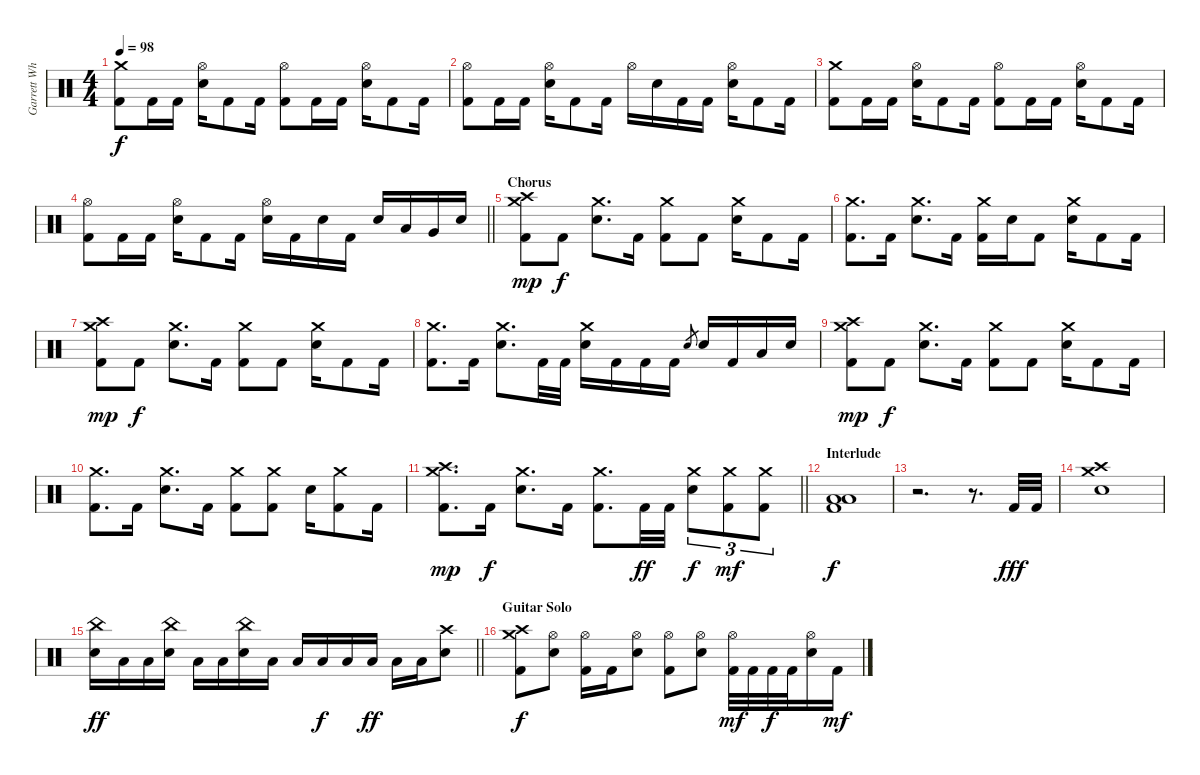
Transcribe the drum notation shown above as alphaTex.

\track ("Garrett Whitlock" "Garrett Wh") {instrument percussion}
\staff {score}
\articulation defaults
\ts (4 4)
\tempo 98
\clef neutral
\ks c
("Crash medium (hit)" "Kick (hit) 2").8{dy f} "Kick (hit) 2".16 "Kick (hit) 2".16 ("Hi-Hat (open)" "Electric Snare (hit)").16 "Kick (hit) 2".8 "Kick (hit) 2".16 ("Hi-Hat (open)" "Kick (hit) 2").8 "Kick (hit) 2".16 "Kick (hit) 2".16 ("Hi-Hat (open)" "Electric Snare (hit)").16 "Kick (hit) 2".8 "Kick (hit) 2".16 |
("Hi-Hat (open)" "Kick (hit) 2").8 "Kick (hit) 2".16 "Kick (hit) 2".16 ("Hi-Hat (open)" "Electric Snare (hit)").16 "Kick (hit) 2".8 "Kick (hit) 2".16 "Hi-Hat (open)".16 "Electric Snare (hit)".16 "Kick (hit) 2".16 "Kick (hit) 2".16 ("Hi-Hat (open)" "Electric Snare (hit)").16 "Kick (hit) 2".8 "Kick (hit) 2".16 |
("Crash medium (hit)" "Kick (hit) 2").8 "Kick (hit) 2".16 "Kick (hit) 2".16 ("Hi-Hat (open)" "Electric Snare (hit)").16 "Kick (hit) 2".8 "Kick (hit) 2".16 ("Hi-Hat (open)" "Kick (hit) 2").8 "Kick (hit) 2".16 "Kick (hit) 2".16 ("Hi-Hat (open)" "Electric Snare (hit)").16 "Kick (hit) 2".8 "Kick (hit) 2".16 |
\barLineRight lightlight
("Hi-Hat (open)" "Kick (hit) 2").8 "Kick (hit) 2".16 "Kick (hit) 2".16 ("Hi-Hat (open)" "Electric Snare (hit)").16 "Kick (hit) 2".8 "Kick (hit) 2".16 ("Hi-Hat (open)" "Electric Snare (hit)").16 "Kick (hit) 2".16 "Electric Snare (hit)".16 "Kick (hit) 2".16 "Electric Snare (hit)".16 "Low Tom (hit)".16 "Very Low Tom (hit)".16 "Electric Snare (hit)".16 |
\section ("" "Chorus")
("Crash high (hit)" "Crash medium (hit)" "Kick (hit) 2").8{dy mp} "Kick (hit) 2".8{dy f} ("Crash medium (hit)" "Electric Snare (hit)").8{d} "Kick (hit) 2".16 ("Crash medium (hit)" "Kick (hit) 2").8 "Kick (hit) 2".8 ("Crash medium (hit)" "Electric Snare (hit)").16 "Kick (hit) 2".8 "Kick (hit) 2".16 |
("Crash medium (hit)" "Kick (hit) 2").8{d} "Kick (hit) 2".16 ("Crash medium (hit)" "Electric Snare (hit)").8{d} "Kick (hit) 2".16 ("Crash medium (hit)" "Kick (hit) 2").16 "Electric Snare (hit)".16 "Kick (hit) 2".8 ("Crash medium (hit)" "Electric Snare (hit)").16 "Kick (hit) 2".8 "Kick (hit) 2".16 |
("Crash high (hit)" "Crash medium (hit)" "Kick (hit) 2").8{dy mp} "Kick (hit) 2".8{dy f} ("Crash medium (hit)" "Electric Snare (hit)").8{d} "Kick (hit) 2".16 ("Crash medium (hit)" "Kick (hit) 2").8 "Kick (hit) 2".8 ("Crash medium (hit)" "Electric Snare (hit)").16 "Kick (hit) 2".8 "Kick (hit) 2".16 |
("Crash medium (hit)" "Kick (hit) 2").8{d} "Kick (hit) 2".16 ("Crash medium (hit)" "Electric Snare (hit)").8{d} "Kick (hit) 2".32 "Kick (hit) 2".32 ("Crash medium (hit)" "Electric Snare (hit)").16 "Kick (hit) 2".16 "Kick (hit) 2".16 "Kick (hit) 2".16 "Electric Snare (hit)".8{gr} "Electric Snare (hit)".16 "Kick (hit) 2".16 "Low Tom (hit)".16 "Electric Snare (hit)".16 |
("Crash high (hit)" "Crash medium (hit)" "Kick (hit) 2").8{dy mp} "Kick (hit) 2".8{dy f} ("Crash medium (hit)" "Electric Snare (hit)").8{d} "Kick (hit) 2".16 ("Crash medium (hit)" "Kick (hit) 2").8 "Kick (hit) 2".8 ("Crash medium (hit)" "Electric Snare (hit)").16 "Kick (hit) 2".8 "Kick (hit) 2".16 |
("Crash medium (hit)" "Kick (hit) 2").8{d} "Kick (hit) 2".16 ("Crash medium (hit)" "Electric Snare (hit)").8{d} "Kick (hit) 2".16 ("Crash medium (hit)" "Kick (hit) 2").8 ("Crash medium (hit)" "Kick (hit) 2").8 "Electric Snare (hit)".16 ("Crash medium (hit)" "Kick (hit) 2").8 "Kick (hit) 2".16 |
\barLineRight lightlight
("Crash high (hit)" "Crash medium (hit)" "Kick (hit) 2").8{d dy mp} "Kick (hit) 2".16{dy f} ("Crash medium (hit)" "Electric Snare (hit)").8{d} "Kick (hit) 2".16 ("Crash medium (hit)" "Kick (hit) 2").8{d} "Kick (hit) 2".32{dy ff} "Kick (hit) 2".32 ("Crash medium (hit)" "Electric Snare (hit)").8{tu (3 2) dy f} ("Crash medium (hit)" "Kick (hit) 2").8{tu (3 2) dy mf} ("Crash medium (hit)" "Kick (hit) 2").8{tu (3 2)} |
\section ("" "Interlude")
("Low Tom (hit)" "Low Floor Tom (hit)" "Kick (hit) 2").1{dy f} |
r.2{d} r.8{d} "Kick (hit) 2".32{dy fff} "Kick (hit) 2".32 |
("Crash high (hit)" "Crash medium (hit)" "Electric Snare (hit)").1 |
\barLineRight lightlight
("China (hit)" "Electric Snare (hit)").16{dy ff} "Low Tom (hit)".16 "Low Tom (hit)".16 ("China (hit)" "Electric Snare (hit)").16 "Low Tom (hit)".16 "Low Tom (hit)".16 ("China (hit)" "Electric Snare (hit)").16 "Low Tom (hit)".16 "Low Tom (hit)".16 "Low Tom (hit)".16{dy f} "Low Tom (hit)".16 "Low Tom (hit)".16{dy ff} "Low Tom (hit)".16 "Low Tom (hit)".16 ("Crash high (hit)" "Electric Snare (hit)").8 |
\section ("" "Guitar Solo")
("Crash high (hit)" "Crash medium (hit)" "Kick (hit) 2").8{dy f} ("Hi-Hat (open)" "Electric Snare (hit)").8 ("Hi-Hat (open)" "Kick (hit) 2").16 "Kick (hit) 2".16 ("Hi-Hat (open)" "Electric Snare (hit)").8 ("Hi-Hat (open)" "Kick (hit) 2").8 ("Hi-Hat (open)" "Electric Snare (hit)").8 ("Hi-Hat (open)" "Kick (hit) 2").32{dy mf} "Kick (hit) 2".32 "Kick (hit) 2".32{dy f} "Kick (hit) 2".32 ("Hi-Hat (open)" "Electric Snare (hit)").16 "Kick (hit) 2".16{dy mf}
